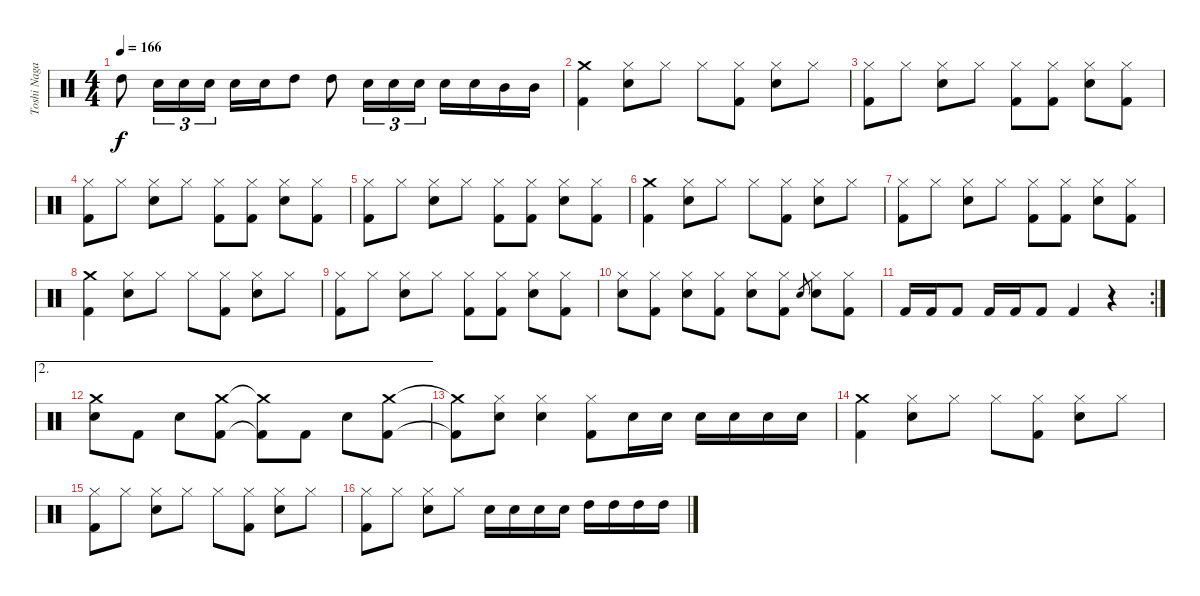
\track ("Toshi Nagai" "Toshi Naga") {instrument percussion}
\staff {score}
\articulation defaults
\ts (4 4)
\tempo 166
\clef neutral
\ks c "High Tom (hit)".8{dy f} "Electric Snare (hit)".16{tu (3 2)} "Electric Snare (hit)".16{tu (3 2)} "Electric Snare (hit)".16{tu (3 2)} "Electric Snare (hit)".16 "Electric Snare (hit)".16 "High Tom (hit)".8 "High Tom (hit)".8 "Electric Snare (hit)".16{tu (3 2)} "Electric Snare (hit)".16{tu (3 2)} "Electric Snare (hit)".16{tu (3 2)} "Electric Snare (hit)".16 "Electric Snare (hit)".16 "Mid Tom (hit)".16 "Mid Tom (hit)".16
|
("Crash medium (hit)" "Kick (hit) 2").4 ("Hi-Hat (closed)" "Electric Snare (hit)").8 "Hi-Hat (closed)".8 "Hi-Hat (closed)".8 ("Hi-Hat (closed)" "Kick (hit) 2").8 ("Hi-Hat (closed)" "Electric Snare (hit)").8 "Hi-Hat (closed)".8 |
("Hi-Hat (closed)" "Kick (hit) 2").8 "Hi-Hat (closed)".8 ("Hi-Hat (closed)" "Electric Snare (hit)").8 "Hi-Hat (closed)".8 ("Hi-Hat (closed)" "Kick (hit) 2").8 ("Hi-Hat (closed)" "Kick (hit) 2").8 ("Hi-Hat (closed)" "Electric Snare (hit)").8 ("Hi-Hat (closed)" "Kick (hit) 2").8 |
("Hi-Hat (closed)" "Kick (hit) 2").8 "Hi-Hat (closed)".8 ("Hi-Hat (closed)" "Electric Snare (hit)").8 "Hi-Hat (closed)".8 ("Hi-Hat (closed)" "Kick (hit) 2").8 ("Hi-Hat (closed)" "Kick (hit) 2").8 ("Hi-Hat (closed)" "Electric Snare (hit)").8 ("Hi-Hat (closed)" "Kick (hit) 2").8 |
("Hi-Hat (closed)" "Kick (hit) 2").8 "Hi-Hat (closed)".8 ("Hi-Hat (closed)" "Electric Snare (hit)").8 "Hi-Hat (closed)".8 ("Hi-Hat (closed)" "Kick (hit) 2").8 ("Hi-Hat (closed)" "Kick (hit) 2").8 ("Hi-Hat (closed)" "Electric Snare (hit)").8 ("Hi-Hat (closed)" "Kick (hit) 2").8 |
("Crash medium (hit)" "Kick (hit) 2").4 ("Hi-Hat (closed)" "Electric Snare (hit)").8 "Hi-Hat (closed)".8 "Hi-Hat (closed)".8 ("Hi-Hat (closed)" "Kick (hit) 2").8 ("Hi-Hat (closed)" "Electric Snare (hit)").8 "Hi-Hat (closed)".8 |
("Hi-Hat (closed)" "Kick (hit) 2").8 "Hi-Hat (closed)".8 ("Hi-Hat (closed)" "Electric Snare (hit)").8 "Hi-Hat (closed)".8 ("Hi-Hat (closed)" "Kick (hit) 2").8 ("Hi-Hat (closed)" "Kick (hit) 2").8 ("Hi-Hat (closed)" "Electric Snare (hit)").8 ("Hi-Hat (closed)" "Kick (hit) 2").8 |
("Crash medium (hit)" "Kick (hit) 2").4 ("Hi-Hat (closed)" "Electric Snare (hit)").8 "Hi-Hat (closed)".8 "Hi-Hat (closed)".8 ("Hi-Hat (closed)" "Kick (hit) 2").8 ("Hi-Hat (closed)" "Electric Snare (hit)").8 "Hi-Hat (closed)".8 |
("Hi-Hat (closed)" "Kick (hit) 2").8 "Hi-Hat (closed)".8 ("Hi-Hat (closed)" "Electric Snare (hit)").8 "Hi-Hat (closed)".8 ("Hi-Hat (closed)" "Kick (hit) 2").8 ("Hi-Hat (closed)" "Kick (hit) 2").8 ("Hi-Hat (closed)" "Electric Snare (hit)").8 ("Hi-Hat (closed)" "Kick (hit) 2").8 |
("Hi-Hat (closed)" "Electric Snare (hit)").8 ("Hi-Hat (closed)" "Kick (hit) 2").8 ("Hi-Hat (closed)" "Electric Snare (hit)").8 ("Hi-Hat (closed)" "Kick (hit) 2").8 ("Hi-Hat (closed)" "Electric Snare (hit)").8 ("Hi-Hat (closed)" "Kick (hit) 2").8 "Electric Snare (hit)".8{gr} ("Hi-Hat (closed)" "Electric Snare (hit)").8 ("Hi-Hat (closed)" "Kick (hit) 2").8 |
\rc 2 "Kick (hit) 2".16 "Kick (hit) 2".16 "Kick (hit) 2".8 "Kick (hit) 2".16 "Kick (hit) 2".16 "Kick (hit) 2".8 "Kick (hit) 2".4
r.4 |
\ae 2
("Crash medium (hit)" "Electric Snare (hit)").8 "Kick (hit) 2".8 "Electric Snare (hit)".8 ("Crash medium (hit)" "Kick (hit) 2").8 ("Crash medium (hit)"{t} "Kick (hit) 2"{t}).8 "Kick (hit) 2".8 "Electric Snare (hit)".8 ("Crash medium (hit)" "Kick (hit) 2").8 |
("Crash medium (hit)"{t} "Kick (hit) 2"{t}).8 ("Hi-Hat (closed)" "Electric Snare (hit)").8 ("Hi-Hat (closed)" "Electric Snare (hit)").4 ("Hi-Hat (closed)" "Kick (hit) 2").8 "Electric Snare (hit)".16 "Electric Snare (hit)".16 "Electric Snare (hit)".16 "Electric Snare (hit)".16 "Electric Snare (hit)".16 "Electric Snare (hit)".16 |
("Crash medium (hit)" "Kick (hit) 2").4 ("Hi-Hat (closed)" "Electric Snare (hit)").8 "Hi-Hat (closed)".8 "Hi-Hat (closed)".8 ("Hi-Hat (closed)" "Kick (hit) 2").8 ("Hi-Hat (closed)" "Electric Snare (hit)").8 "Hi-Hat (closed)".8 |
("Hi-Hat (closed)" "Kick (hit) 2").8 "Hi-Hat (closed)".8 ("Hi-Hat (closed)" "Electric Snare (hit)").8 "Hi-Hat (closed)".8 "Hi-Hat (closed)".8 ("Hi-Hat (closed)" "Kick (hit) 2").8 ("Hi-Hat (closed)" "Electric Snare (hit)").8 "Hi-Hat (closed)".8 |
("Hi-Hat (closed)" "Kick (hit) 2").8 "Hi-Hat (closed)".8 ("Hi-Hat (closed)" "Electric Snare (hit)").8 "Hi-Hat (closed)".8 "Electric Snare (hit)".16 "Electric Snare (hit)".16 "Electric Snare (hit)".16 "Electric Snare (hit)".16 "High Tom (hit)".16 "High Tom (hit)".16 "High Tom (hit)".16 "High Tom (hit)".16
